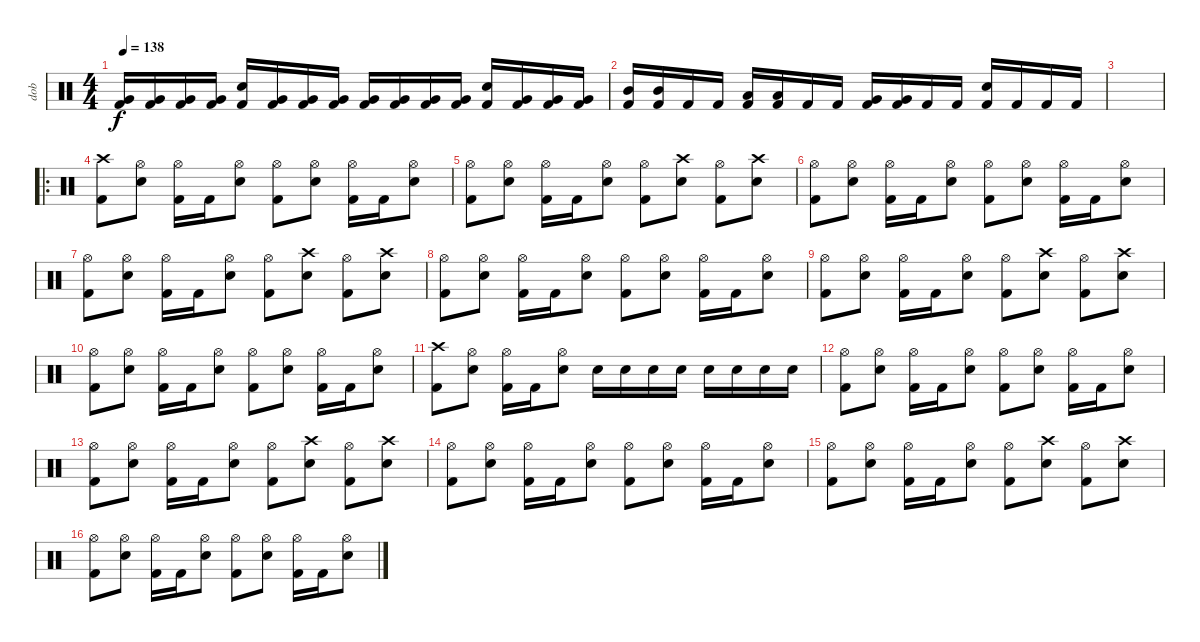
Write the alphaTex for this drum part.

\track ("dob" "dob") {instrument percussion}
\staff {score}
\articulation defaults
\ts (4 4)
\tempo 138
\clef neutral
\ks c
("Very Low Tom (hit)" "Kick (hit) 2").16{dy f} ("Very Low Tom (hit)" "Kick (hit) 2").16 ("Very Low Tom (hit)" "Kick (hit) 2").16 ("Very Low Tom (hit)" "Kick (hit) 2").16 ("Electric Snare (hit)" "Kick (hit) 2").16 ("Very Low Tom (hit)" "Kick (hit) 2").16 ("Very Low Tom (hit)" "Kick (hit) 2").16 ("Very Low Tom (hit)" "Kick (hit) 2").16 ("Very Low Tom (hit)" "Kick (hit) 2").16 ("Very Low Tom (hit)" "Kick (hit) 2").16 ("Very Low Tom (hit)" "Kick (hit) 2").16 ("Very Low Tom (hit)" "Kick (hit) 2").16 ("Electric Snare (hit)" "Kick (hit) 2").16 ("Very Low Tom (hit)" "Kick (hit) 2").16 ("Very Low Tom (hit)" "Kick (hit) 2").16 ("Very Low Tom (hit)" "Kick (hit) 2").16 |
("Mid Tom (hit)" "Kick (hit) 2").16 ("Mid Tom (hit)" "Kick (hit) 2").16 "Kick (hit) 2".16 "Kick (hit) 2".16 ("Low Tom (hit)" "Kick (hit) 2").16 ("Low Tom (hit)" "Kick (hit) 2").16 "Kick (hit) 2".16 "Kick (hit) 2".16 ("Very Low Tom (hit)" "Kick (hit) 2").16 ("Very Low Tom (hit)" "Kick (hit) 2").16 "Kick (hit) 2".16 "Kick (hit) 2".16 ("Electric Snare (hit)" "Kick (hit) 2").16 "Kick (hit) 2".16 "Kick (hit) 2".16 "Kick (hit) 2".16 |
|
\ro
("Crash high (hit)" "Kick (hit) 2").8 ("Hi-Hat (open)" "Electric Snare (hit)").8 ("Hi-Hat (open)" "Kick (hit) 2").16 "Kick (hit) 2".16 ("Hi-Hat (open)" "Electric Snare (hit)").8 ("Hi-Hat (open)" "Kick (hit) 2").8 ("Hi-Hat (open)" "Electric Snare (hit)").8 ("Hi-Hat (open)" "Kick (hit) 2").16 "Kick (hit) 2".16 ("Hi-Hat (open)" "Electric Snare (hit)").8 |
("Hi-Hat (open)" "Kick (hit) 2").8 ("Hi-Hat (open)" "Electric Snare (hit)").8 ("Hi-Hat (open)" "Kick (hit) 2").16 "Kick (hit) 2".16 ("Hi-Hat (open)" "Electric Snare (hit)").8 ("Hi-Hat (open)" "Kick (hit) 2").8 ("Crash high (hit)" "Electric Snare (hit)").8 ("Hi-Hat (open)" "Kick (hit) 2").8 ("Crash high (hit)" "Electric Snare (hit)").8 |
("Hi-Hat (open)" "Kick (hit) 2").8 ("Hi-Hat (open)" "Electric Snare (hit)").8 ("Hi-Hat (open)" "Kick (hit) 2").16 "Kick (hit) 2".16 ("Hi-Hat (open)" "Electric Snare (hit)").8 ("Hi-Hat (open)" "Kick (hit) 2").8 ("Hi-Hat (open)" "Electric Snare (hit)").8 ("Hi-Hat (open)" "Kick (hit) 2").16 "Kick (hit) 2".16 ("Hi-Hat (open)" "Electric Snare (hit)").8 |
("Hi-Hat (open)" "Kick (hit) 2").8 ("Hi-Hat (open)" "Electric Snare (hit)").8 ("Hi-Hat (open)" "Kick (hit) 2").16 "Kick (hit) 2".16 ("Hi-Hat (open)" "Electric Snare (hit)").8 ("Hi-Hat (open)" "Kick (hit) 2").8 ("Crash high (hit)" "Electric Snare (hit)").8 ("Hi-Hat (open)" "Kick (hit) 2").8 ("Crash high (hit)" "Electric Snare (hit)").8 |
("Hi-Hat (open)" "Kick (hit) 2").8 ("Hi-Hat (open)" "Electric Snare (hit)").8 ("Hi-Hat (open)" "Kick (hit) 2").16 "Kick (hit) 2".16 ("Hi-Hat (open)" "Electric Snare (hit)").8 ("Hi-Hat (open)" "Kick (hit) 2").8 ("Hi-Hat (open)" "Electric Snare (hit)").8 ("Hi-Hat (open)" "Kick (hit) 2").16 "Kick (hit) 2".16 ("Hi-Hat (open)" "Electric Snare (hit)").8 |
("Hi-Hat (open)" "Kick (hit) 2").8 ("Hi-Hat (open)" "Electric Snare (hit)").8 ("Hi-Hat (open)" "Kick (hit) 2").16 "Kick (hit) 2".16 ("Hi-Hat (open)" "Electric Snare (hit)").8 ("Hi-Hat (open)" "Kick (hit) 2").8 ("Crash high (hit)" "Electric Snare (hit)").8 ("Hi-Hat (open)" "Kick (hit) 2").8 ("Crash high (hit)" "Electric Snare (hit)").8 |
("Hi-Hat (open)" "Kick (hit) 2").8 ("Hi-Hat (open)" "Electric Snare (hit)").8 ("Hi-Hat (open)" "Kick (hit) 2").16 "Kick (hit) 2".16 ("Hi-Hat (open)" "Electric Snare (hit)").8 ("Hi-Hat (open)" "Kick (hit) 2").8 ("Hi-Hat (open)" "Electric Snare (hit)").8 ("Hi-Hat (open)" "Kick (hit) 2").16 "Kick (hit) 2".16 ("Hi-Hat (open)" "Electric Snare (hit)").8 |
("Crash high (hit)" "Kick (hit) 2").8 ("Hi-Hat (open)" "Electric Snare (hit)").8 ("Hi-Hat (open)" "Kick (hit) 2").16 "Kick (hit) 2".16 ("Hi-Hat (open)" "Electric Snare (hit)").8 "Electric Snare (hit)".16 "Electric Snare (hit)".16 "Electric Snare (hit)".16 "Electric Snare (hit)".16 "Electric Snare (hit)".16 "Electric Snare (hit)".16 "Electric Snare (hit)".16 "Electric Snare (hit)".16 |
("Hi-Hat (open)" "Kick (hit) 2").8 ("Hi-Hat (open)" "Electric Snare (hit)").8 ("Hi-Hat (open)" "Kick (hit) 2").16 "Kick (hit) 2".16 ("Hi-Hat (open)" "Electric Snare (hit)").8 ("Hi-Hat (open)" "Kick (hit) 2").8 ("Hi-Hat (open)" "Electric Snare (hit)").8 ("Hi-Hat (open)" "Kick (hit) 2").16 "Kick (hit) 2".16 ("Hi-Hat (open)" "Electric Snare (hit)").8 |
("Hi-Hat (open)" "Kick (hit) 2").8 ("Hi-Hat (open)" "Electric Snare (hit)").8 ("Hi-Hat (open)" "Kick (hit) 2").16 "Kick (hit) 2".16 ("Hi-Hat (open)" "Electric Snare (hit)").8 ("Hi-Hat (open)" "Kick (hit) 2").8 ("Crash high (hit)" "Electric Snare (hit)").8 ("Hi-Hat (open)" "Kick (hit) 2").8 ("Crash high (hit)" "Electric Snare (hit)").8 |
("Hi-Hat (open)" "Kick (hit) 2").8 ("Hi-Hat (open)" "Electric Snare (hit)").8 ("Hi-Hat (open)" "Kick (hit) 2").16 "Kick (hit) 2".16 ("Hi-Hat (open)" "Electric Snare (hit)").8 ("Hi-Hat (open)" "Kick (hit) 2").8 ("Hi-Hat (open)" "Electric Snare (hit)").8 ("Hi-Hat (open)" "Kick (hit) 2").16 "Kick (hit) 2".16 ("Hi-Hat (open)" "Electric Snare (hit)").8 |
("Hi-Hat (open)" "Kick (hit) 2").8 ("Hi-Hat (open)" "Electric Snare (hit)").8 ("Hi-Hat (open)" "Kick (hit) 2").16 "Kick (hit) 2".16 ("Hi-Hat (open)" "Electric Snare (hit)").8 ("Hi-Hat (open)" "Kick (hit) 2").8 ("Crash high (hit)" "Electric Snare (hit)").8 ("Hi-Hat (open)" "Kick (hit) 2").8 ("Crash high (hit)" "Electric Snare (hit)").8 |
("Hi-Hat (open)" "Kick (hit) 2").8 ("Hi-Hat (open)" "Electric Snare (hit)").8 ("Hi-Hat (open)" "Kick (hit) 2").16 "Kick (hit) 2".16 ("Hi-Hat (open)" "Electric Snare (hit)").8 ("Hi-Hat (open)" "Kick (hit) 2").8 ("Hi-Hat (open)" "Electric Snare (hit)").8 ("Hi-Hat (open)" "Kick (hit) 2").16 "Kick (hit) 2".16 ("Hi-Hat (open)" "Electric Snare (hit)").8
